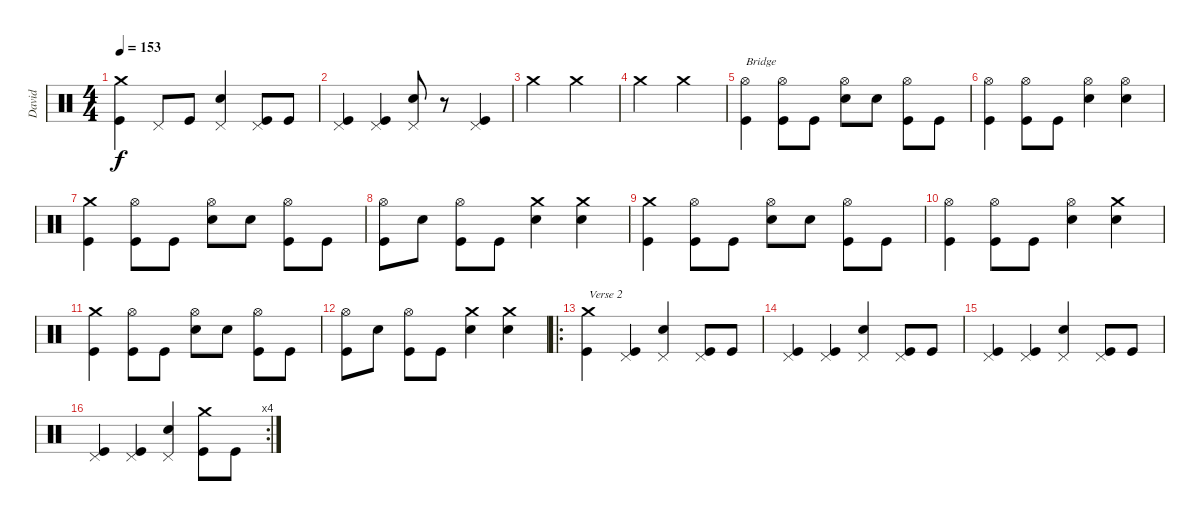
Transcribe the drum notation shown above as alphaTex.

\track ("David" "David") {instrument percussion}
\staff {score}
\articulation defaults
\ts (4 4)
\tempo 153
\clef neutral
\ks c
("Crash medium (hit)" "Kick (hit)").4{dy f} "Pedal Hi-Hat (hit)".8 "Kick (hit)".8 ("Pedal Hi-Hat (hit)" "Snare (hit) 2").4 ("Pedal Hi-Hat (hit)" "Kick (hit)").8 "Kick (hit)".8 |
("Pedal Hi-Hat (hit)" "Kick (hit)").4 ("Pedal Hi-Hat (hit)" "Kick (hit)").4 ("Pedal Hi-Hat (hit)" "Snare (hit) 2").8 r.8 ("Pedal Hi-Hat (hit)" "Kick (hit)").4 |
"Crash medium (hit)".2 "Crash medium (hit)".2 |
"Crash medium (hit)".2 "Crash medium (hit)".2 |
("Hi-Hat (open)" "Kick (hit)").4{txt "Bridge"} ("Hi-Hat (open)" "Kick (hit)").8 "Kick (hit)".8 ("Hi-Hat (open)" "Snare (hit) 2").8 "Snare (hit) 2".8 ("Hi-Hat (open)" "Kick (hit)").8 "Kick (hit)".8 |
("Hi-Hat (open)" "Kick (hit)").4 ("Hi-Hat (open)" "Kick (hit)").8 "Kick (hit)".8 ("Hi-Hat (open)" "Snare (hit) 2").4 ("Hi-Hat (open)" "Snare (hit) 2").4 |
("Crash medium (hit)" "Kick (hit)").4 ("Hi-Hat (open)" "Kick (hit)").8 "Kick (hit)".8 ("Hi-Hat (open)" "Snare (hit) 2").8 "Snare (hit) 2".8 ("Hi-Hat (open)" "Kick (hit)").8 "Kick (hit)".8 |
("Hi-Hat (open)" "Kick (hit)").8 "Snare (hit) 2".8 ("Hi-Hat (open)" "Kick (hit)").8 "Kick (hit)".8 ("Crash medium (hit)" "Snare (hit) 2").4 ("Crash medium (hit)" "Snare (hit) 2").4 |
("Crash medium (hit)" "Kick (hit)").4 ("Hi-Hat (open)" "Kick (hit)").8 "Kick (hit)".8 ("Hi-Hat (open)" "Snare (hit) 2").8 "Snare (hit) 2".8 ("Hi-Hat (open)" "Kick (hit)").8 "Kick (hit)".8 |
("Hi-Hat (open)" "Kick (hit)").4 ("Hi-Hat (open)" "Kick (hit)").8 "Kick (hit)".8 ("Hi-Hat (open)" "Snare (hit) 2").4 ("Crash medium (hit)" "Snare (hit) 2").4 |
("Crash medium (hit)" "Kick (hit)").4 ("Hi-Hat (open)" "Kick (hit)").8 "Kick (hit)".8 ("Hi-Hat (open)" "Snare (hit) 2").8 "Snare (hit) 2".8 ("Hi-Hat (open)" "Kick (hit)").8 "Kick (hit)".8 |
("Hi-Hat (open)" "Kick (hit)").8 "Snare (hit) 2".8 ("Hi-Hat (open)" "Kick (hit)").8 "Kick (hit)".8 ("Crash medium (hit)" "Snare (hit) 2").4 ("Crash medium (hit)" "Snare (hit) 2").4 |
\ro
("Crash medium (hit)" "Kick (hit)").4{txt "Verse 2"} ("Pedal Hi-Hat (hit)" "Kick (hit)").4 ("Pedal Hi-Hat (hit)" "Snare (hit) 2").4 ("Pedal Hi-Hat (hit)" "Kick (hit)").8 "Kick (hit)".8 |
("Pedal Hi-Hat (hit)" "Kick (hit)").4 ("Pedal Hi-Hat (hit)" "Kick (hit)").4 ("Pedal Hi-Hat (hit)" "Snare (hit) 2").4 ("Pedal Hi-Hat (hit)" "Kick (hit)").8 "Kick (hit)".8 |
("Pedal Hi-Hat (hit)" "Kick (hit)").4 ("Pedal Hi-Hat (hit)" "Kick (hit)").4 ("Pedal Hi-Hat (hit)" "Snare (hit) 2").4 ("Pedal Hi-Hat (hit)" "Kick (hit)").8 "Kick (hit)".8 |
\rc 4
("Pedal Hi-Hat (hit)" "Kick (hit)").4 ("Pedal Hi-Hat (hit)" "Kick (hit)").4 ("Pedal Hi-Hat (hit)" "Snare (hit) 2").4 ("Crash medium (hit)" "Kick (hit)").8 "Kick (hit)".8
